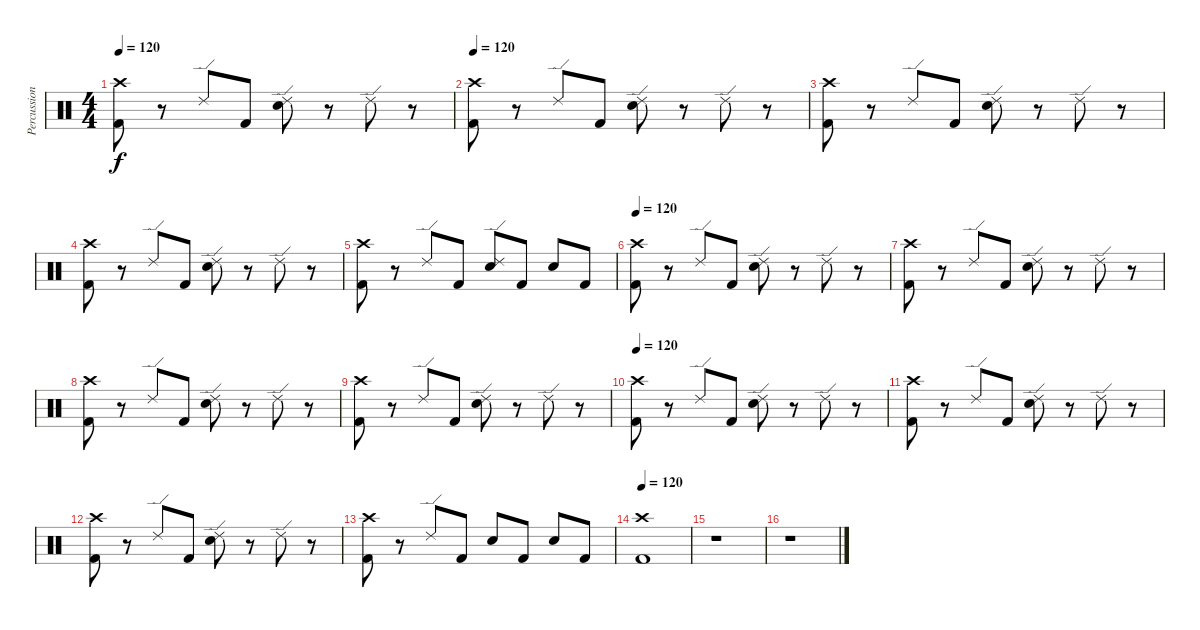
\track ("Percussion" "Percussion") {instrument percussion}
\staff {score}
\articulation defaults
\ts (4 4)
\tempo 120
\clef neutral
\ks c
("Crash high (hit)" "Kick (hit) 2").8{dy f} r.8 "Ride (edge) 2".8 "Kick (hit) 2".8 ("Ride (edge) 2" "Snare (hit) 2").8 r.8 "Ride (edge) 2".8 r.8 |
\tempo 120
("Crash high (hit)" "Kick (hit) 2").8 r.8 "Ride (edge) 2".8 "Kick (hit) 2".8 ("Ride (edge) 2" "Snare (hit) 2").8 r.8 "Ride (edge) 2".8 r.8 |
("Crash high (hit)" "Kick (hit) 2").8 r.8 "Ride (edge) 2".8 "Kick (hit) 2".8 ("Ride (edge) 2" "Snare (hit) 2").8 r.8 "Ride (edge) 2".8 r.8 |
("Crash high (hit)" "Kick (hit) 2").8 r.8 "Ride (edge) 2".8 "Kick (hit) 2".8 ("Ride (edge) 2" "Snare (hit) 2").8 r.8 "Ride (edge) 2".8 r.8 |
("Crash high (hit)" "Kick (hit) 2").8 r.8 "Ride (edge) 2".8 "Kick (hit) 2".8 ("Ride (edge) 2" "Snare (hit) 2").8 "Kick (hit) 2".8 "Snare (hit) 2".8 "Kick (hit) 2".8 |
\tempo 120
("Crash high (hit)" "Kick (hit) 2").8 r.8 "Ride (edge) 2".8 "Kick (hit) 2".8 ("Ride (edge) 2" "Snare (hit) 2").8 r.8 "Ride (edge) 2".8 r.8 |
("Crash high (hit)" "Kick (hit) 2").8 r.8 "Ride (edge) 2".8 "Kick (hit) 2".8 ("Ride (edge) 2" "Snare (hit) 2").8 r.8 "Ride (edge) 2".8 r.8 |
("Crash high (hit)" "Kick (hit) 2").8 r.8 "Ride (edge) 2".8 "Kick (hit) 2".8 ("Ride (edge) 2" "Snare (hit) 2").8 r.8 "Ride (edge) 2".8 r.8 |
("Crash high (hit)" "Kick (hit) 2").8 r.8 "Ride (edge) 2".8 "Kick (hit) 2".8 ("Ride (edge) 2" "Snare (hit) 2").8 r.8 "Ride (edge) 2".8 r.8 |
\tempo 120
("Crash high (hit)" "Kick (hit) 2").8 r.8 "Ride (edge) 2".8 "Kick (hit) 2".8 ("Ride (edge) 2" "Snare (hit) 2").8 r.8 "Ride (edge) 2".8 r.8 |
("Crash high (hit)" "Kick (hit) 2").8 r.8 "Ride (edge) 2".8 "Kick (hit) 2".8 ("Ride (edge) 2" "Snare (hit) 2").8 r.8 "Ride (edge) 2".8 r.8 |
("Crash high (hit)" "Kick (hit) 2").8 r.8 "Ride (edge) 2".8 "Kick (hit) 2".8 ("Ride (edge) 2" "Snare (hit) 2").8 r.8 "Ride (edge) 2".8 r.8 |
("Crash high (hit)" "Kick (hit) 2").8 r.8 "Ride (edge) 2".8 "Kick (hit) 2".8 "Snare (hit) 2".8 "Kick (hit) 2".8 "Snare (hit) 2".8 "Kick (hit) 2".8 |
\tempo 120
("Crash high (hit)" "Kick (hit) 2").1 |
r.1 |
r.1
